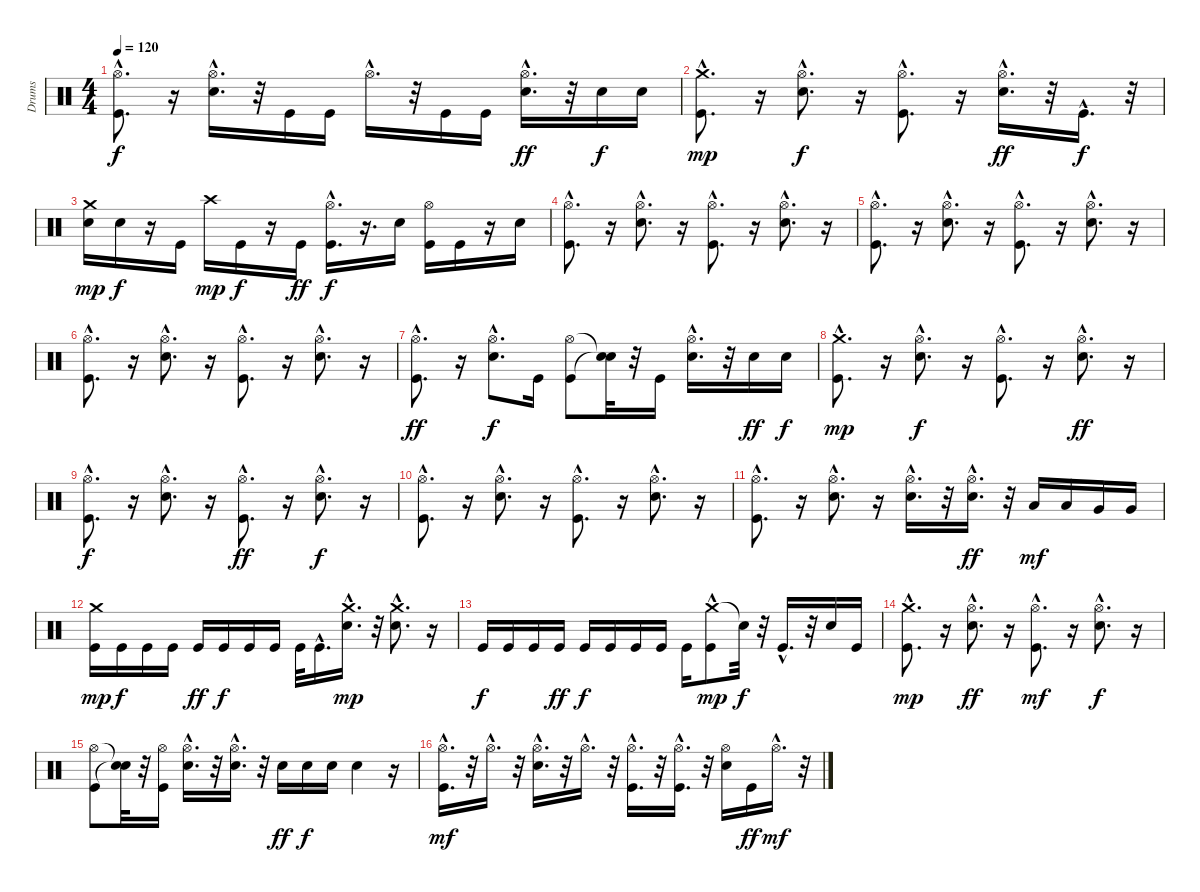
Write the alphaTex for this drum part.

\track ("Drums" "Drums") {instrument percussion}
\staff {score}
\articulation defaults
\ts (4 4)
\tempo 120
\clef neutral
\ks c
("Hi-Hat (open)"{hac} "Kick (hit)"{hac}).8{d dy f} r.16 ("Hi-Hat (open)"{hac} "Electric Snare (hit)"{hac}).16{d} r.32 "Kick (hit)".16 "Kick (hit)".16 "Hi-Hat (open)"{hac}.16{d} r.32 "Kick (hit)".16 "Kick (hit)".16 ("Hi-Hat (open)"{hac} "Electric Snare (hit)"{hac}).16{d dy ff} r.32 "Electric Snare (hit)".16{dy f} "Electric Snare (hit)".16 |
("Kick (hit)"{hac} "Crash medium (hit)"{hac}).8{d dy mp} r.16 ("Hi-Hat (open)"{hac} "Electric Snare (hit)"{hac}).8{d dy f} r.16 ("Hi-Hat (open)"{hac} "Kick (hit)"{hac}).8{d} r.16 ("Hi-Hat (open)"{hac} "Electric Snare (hit)"{hac}).16{d dy ff} r.32 "Kick (hit)"{hac}.16{d dy f} r.32 |
("Electric Snare (hit)" "Crash medium (hit)").16{dy mp} "Electric Snare (hit)".16{dy f} r.16 "Kick (hit)".16 "Crash high (hit)".16{dy mp} "Kick (hit)".16{dy f} r.16 "Kick (hit)".16{dy ff} ("Hi-Hat (open)"{hac} "Kick (hit)").16{d dy f} r.16{d} "Electric Snare (hit)".16 ("Hi-Hat (open)" "Kick (hit)").16 "Kick (hit)".16 r.16 "Electric Snare (hit)".16 |
("Hi-Hat (open)"{hac} "Kick (hit)"{hac}).8{d} r.16 ("Hi-Hat (open)"{hac} "Electric Snare (hit)"{hac}).8{d} r.16 ("Hi-Hat (open)"{hac} "Kick (hit)"{hac}).8{d} r.16 ("Hi-Hat (open)"{hac} "Electric Snare (hit)"{hac}).8{d} r.16 |
("Hi-Hat (open)"{hac} "Kick (hit)"{hac}).8{d} r.16 ("Hi-Hat (open)"{hac} "Electric Snare (hit)"{hac}).8{d} r.16 ("Hi-Hat (open)"{hac} "Kick (hit)"{hac}).8{d} r.16 ("Hi-Hat (open)"{hac} "Electric Snare (hit)"{hac}).8{d} r.16 |
("Hi-Hat (open)"{hac} "Kick (hit)").8{d} r.16 ("Hi-Hat (open)"{hac} "Electric Snare (hit)"{hac}).8{d} r.16 ("Hi-Hat (open)"{hac} "Kick (hit)"{hac}).8{d} r.16 ("Hi-Hat (open)"{hac} "Electric Snare (hit)"{hac}).8{d} r.16 |
("Hi-Hat (open)"{hac} "Kick (hit)"{hac}).8{d dy ff} r.16 ("Hi-Hat (open)" "Electric Snare (hit)"{hac}).8{d dy f} "Kick (hit)".16 ("Hi-Hat (open)" "Kick (hit)").8 ("Snare (hit)"{t} "Snare (hit)"{t}).32 r.32 "Kick (hit)".16 ("Hi-Hat (open)"{hac} "Electric Snare (hit)"{hac}).16{d} r.32 "Electric Snare (hit)".16{dy ff} "Electric Snare (hit)".16{dy f} |
("Kick (hit)"{hac} "Crash medium (hit)"{hac}).8{d dy mp} r.16 ("Hi-Hat (open)"{hac} "Electric Snare (hit)").8{d dy f} r.16 ("Hi-Hat (open)"{hac} "Kick (hit)").8{d} r.16 ("Hi-Hat (open)"{hac} "Electric Snare (hit)").8{d dy ff} r.16 |
("Hi-Hat (open)"{hac} "Kick (hit)").8{d dy f} r.16 ("Hi-Hat (open)"{hac} "Electric Snare (hit)").8{d} r.16 ("Hi-Hat (open)"{hac} "Kick (hit)").8{d dy ff} r.16 ("Hi-Hat (open)"{hac} "Electric Snare (hit)").8{d dy f} r.16 |
("Hi-Hat (open)"{hac} "Kick (hit)").8{d} r.16 ("Hi-Hat (open)"{hac} "Electric Snare (hit)").8{d} r.16 ("Hi-Hat (open)"{hac} "Kick (hit)").8{d} r.16 ("Hi-Hat (open)"{hac} "Electric Snare (hit)").8{d} r.16 |
("Hi-Hat (open)"{hac} "Kick (hit)").8{d} r.16 ("Hi-Hat (open)"{hac} "Electric Snare (hit)").8{d} r.16 ("Hi-Hat (open)"{hac} "Electric Snare (hit)").16{d} r.32 ("Hi-Hat (open)"{hac} "Electric Snare (hit)").16{d dy ff} r.32 "Low Tom (hit)".16{dy mf} "Low Tom (hit)".16 "Very Low Tom (hit)".16 "Very Low Tom (hit)".16 |
("Kick (hit)" "Crash medium (hit)").16{dy mp} "Kick (hit)".16{dy f} "Kick (hit)".16 "Kick (hit)".16 "Kick (hit)".16{dy ff} "Kick (hit)".16{dy f} "Kick (hit)".16 "Kick (hit)".16 "Kick (hit)".32 "Kick (hit)"{hac}.16{d} ("Electric Snare (hit)"{hac} "Crash medium (hit)"{hac}).16{d dy mp} r.32 ("Electric Snare (hit)"{hac} "Crash medium (hit)").8{d} r.16 |
"Kick (hit)".16{dy f} "Kick (hit)".16 "Kick (hit)".16 "Kick (hit)".16{dy ff} "Kick (hit)".16{dy f} "Kick (hit)".16 "Kick (hit)".16 "Kick (hit)".16 "Kick (hit)".16 ("Crash medium (hit)" "Kick (hit)"{hac}).8{dy mp} "Snare (hit)"{t}.32{dy f} r.32 "Kick (hit)"{hac}.16{d} r.32 "Electric Snare (hit)".16 "Kick (hit)".16 |
("Kick (hit)"{hac} "Crash medium (hit)"{hac}).8{d dy mp} r.16 ("Hi-Hat (open)"{hac} "Electric Snare (hit)"{hac}).8{d dy ff} r.16 ("Hi-Hat (open)"{hac} "Kick (hit)"{hac}).8{d dy mf} r.16 ("Hi-Hat (open)"{hac} "Electric Snare (hit)"{hac}).8{d dy f} r.16 |
("Hi-Hat (open)" "Kick (hit)").8 ("Snare (hit)"{t} "Snare (hit)"{t}).32 r.32 ("Hi-Hat (open)" "Kick (hit)").16 ("Hi-Hat (open)"{hac} "Electric Snare (hit)"{hac}).16{d} r.32 ("Hi-Hat (open)"{hac} "Electric Snare (hit)"{hac}).16{d} r.32 "Electric Snare (hit)".16{dy ff} "Electric Snare (hit)".16{dy f} "Electric Snare (hit)".16 "Electric Snare (hit)".4 r.16 |
("Hi-Hat (open)"{hac} "Kick (hit)"{hac}).16{d dy mf} r.32 "Hi-Hat (open)"{hac}.16{d} r.32 ("Hi-Hat (open)"{hac} "Electric Snare (hit)"{hac}).16{d} r.32 "Hi-Hat (open)"{hac}.16{d} r.32 ("Hi-Hat (open)"{hac} "Kick (hit)"{hac}).16{d} r.32 ("Hi-Hat (open)"{hac} "Kick (hit)"{hac}).16{d} r.32 ("Hi-Hat (open)" "Electric Snare (hit)").16 "Kick (hit)".16{dy ff} "Hi-Hat (open)"{hac}.16{d dy mf} r.32
